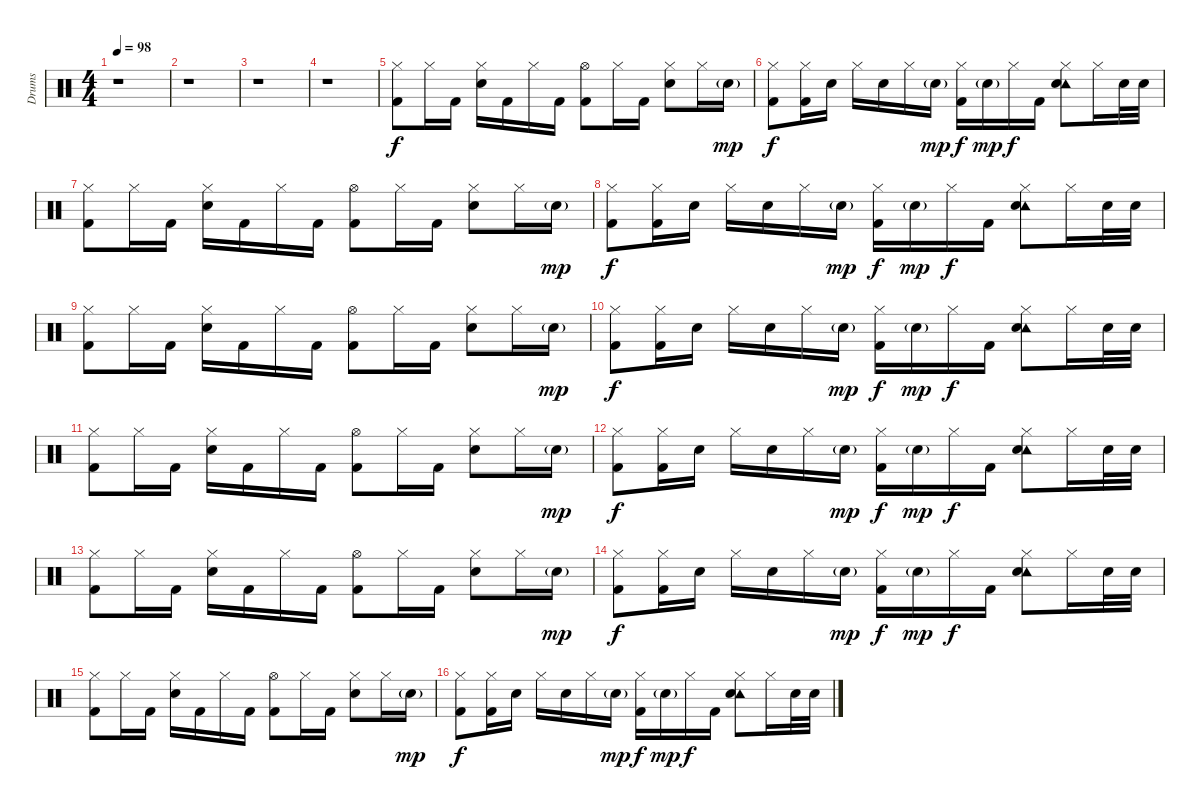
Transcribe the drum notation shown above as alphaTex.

\track ("Drums" "Drums") {instrument percussion}
\staff {score}
\articulation defaults
\ts (4 4)
\tempo 98
\clef neutral
\ks c
r.1{dy f} |
r.1 |
r.1 |
r.1 |
("Hi-Hat (closed)" "Kick (hit) 2").8 "Hi-Hat (closed)".16 "Kick (hit) 2".16 ("Hi-Hat (closed)" "Snare (hit) 2").16 "Kick (hit) 2".16 "Hi-Hat (closed)".16 "Kick (hit) 2".16 ("Hi-Hat (open)" "Kick (hit) 2").8 "Hi-Hat (closed)".16 "Kick (hit) 2".16 ("Hi-Hat (closed)" "Snare (hit) 2").8 "Hi-Hat (closed)".16 "Snare (hit) 2"{g}.16{dy mp} |
("Hi-Hat (closed)" "Kick (hit) 2").8{dy f} ("Hi-Hat (closed)" "Kick (hit) 2").16 "Snare (hit) 2".16 "Hi-Hat (closed)".16 "Snare (hit) 2".16 "Hi-Hat (closed)".16 "Snare (hit) 2"{g}.16{dy mp} ("Hi-Hat (closed)" "Kick (hit) 2").16{dy f} "Snare (hit) 2"{g}.16{dy mp} "Hi-Hat (closed)".16{dy f} "Kick (hit) 2".16 ("Hi-Hat (closed)" "Tambourine (hit)" "Snare (hit) 2").8 "Hi-Hat (closed)".16 "Snare (hit) 2".32 "Snare (hit) 2".32 |
("Hi-Hat (closed)" "Kick (hit) 2").8 "Hi-Hat (closed)".16 "Kick (hit) 2".16 ("Hi-Hat (closed)" "Snare (hit) 2").16 "Kick (hit) 2".16 "Hi-Hat (closed)".16 "Kick (hit) 2".16 ("Hi-Hat (open)" "Kick (hit) 2").8 "Hi-Hat (closed)".16 "Kick (hit) 2".16 ("Hi-Hat (closed)" "Snare (hit) 2").8 "Hi-Hat (closed)".16 "Snare (hit) 2"{g}.16{dy mp} |
("Hi-Hat (closed)" "Kick (hit) 2").8{dy f} ("Hi-Hat (closed)" "Kick (hit) 2").16 "Snare (hit) 2".16 "Hi-Hat (closed)".16 "Snare (hit) 2".16 "Hi-Hat (closed)".16 "Snare (hit) 2"{g}.16{dy mp} ("Hi-Hat (closed)" "Kick (hit) 2").16{dy f} "Snare (hit) 2"{g}.16{dy mp} "Hi-Hat (closed)".16{dy f} "Kick (hit) 2".16 ("Hi-Hat (closed)" "Tambourine (hit)" "Snare (hit) 2").8 "Hi-Hat (closed)".16 "Snare (hit) 2".32 "Snare (hit) 2".32 |
("Hi-Hat (closed)" "Kick (hit) 2").8 "Hi-Hat (closed)".16 "Kick (hit) 2".16 ("Hi-Hat (closed)" "Snare (hit) 2").16 "Kick (hit) 2".16 "Hi-Hat (closed)".16 "Kick (hit) 2".16 ("Hi-Hat (open)" "Kick (hit) 2").8 "Hi-Hat (closed)".16 "Kick (hit) 2".16 ("Hi-Hat (closed)" "Snare (hit) 2").8 "Hi-Hat (closed)".16 "Snare (hit) 2"{g}.16{dy mp} |
("Hi-Hat (closed)" "Kick (hit) 2").8{dy f} ("Hi-Hat (closed)" "Kick (hit) 2").16 "Snare (hit) 2".16 "Hi-Hat (closed)".16 "Snare (hit) 2".16 "Hi-Hat (closed)".16 "Snare (hit) 2"{g}.16{dy mp} ("Hi-Hat (closed)" "Kick (hit) 2").16{dy f} "Snare (hit) 2"{g}.16{dy mp} "Hi-Hat (closed)".16{dy f} "Kick (hit) 2".16 ("Hi-Hat (closed)" "Tambourine (hit)" "Snare (hit) 2").8 "Hi-Hat (closed)".16 "Snare (hit) 2".32 "Snare (hit) 2".32 |
("Hi-Hat (closed)" "Kick (hit) 2").8 "Hi-Hat (closed)".16 "Kick (hit) 2".16 ("Hi-Hat (closed)" "Snare (hit) 2").16 "Kick (hit) 2".16 "Hi-Hat (closed)".16 "Kick (hit) 2".16 ("Hi-Hat (open)" "Kick (hit) 2").8 "Hi-Hat (closed)".16 "Kick (hit) 2".16 ("Hi-Hat (closed)" "Snare (hit) 2").8 "Hi-Hat (closed)".16 "Snare (hit) 2"{g}.16{dy mp} |
("Hi-Hat (closed)" "Kick (hit) 2").8{dy f} ("Hi-Hat (closed)" "Kick (hit) 2").16 "Snare (hit) 2".16 "Hi-Hat (closed)".16 "Snare (hit) 2".16 "Hi-Hat (closed)".16 "Snare (hit) 2"{g}.16{dy mp} ("Hi-Hat (closed)" "Kick (hit) 2").16{dy f} "Snare (hit) 2"{g}.16{dy mp} "Hi-Hat (closed)".16{dy f} "Kick (hit) 2".16 ("Hi-Hat (closed)" "Tambourine (hit)" "Snare (hit) 2").8 "Hi-Hat (closed)".16 "Snare (hit) 2".32 "Snare (hit) 2".32 |
("Hi-Hat (closed)" "Kick (hit) 2").8 "Hi-Hat (closed)".16 "Kick (hit) 2".16 ("Hi-Hat (closed)" "Snare (hit) 2").16 "Kick (hit) 2".16 "Hi-Hat (closed)".16 "Kick (hit) 2".16 ("Hi-Hat (open)" "Kick (hit) 2").8 "Hi-Hat (closed)".16 "Kick (hit) 2".16 ("Hi-Hat (closed)" "Snare (hit) 2").8 "Hi-Hat (closed)".16 "Snare (hit) 2"{g}.16{dy mp} |
("Hi-Hat (closed)" "Kick (hit) 2").8{dy f} ("Hi-Hat (closed)" "Kick (hit) 2").16 "Snare (hit) 2".16 "Hi-Hat (closed)".16 "Snare (hit) 2".16 "Hi-Hat (closed)".16 "Snare (hit) 2"{g}.16{dy mp} ("Hi-Hat (closed)" "Kick (hit) 2").16{dy f} "Snare (hit) 2"{g}.16{dy mp} "Hi-Hat (closed)".16{dy f} "Kick (hit) 2".16 ("Hi-Hat (closed)" "Tambourine (hit)" "Snare (hit) 2").8 "Hi-Hat (closed)".16 "Snare (hit) 2".32 "Snare (hit) 2".32 |
("Hi-Hat (closed)" "Kick (hit) 2").8 "Hi-Hat (closed)".16 "Kick (hit) 2".16 ("Hi-Hat (closed)" "Snare (hit) 2").16 "Kick (hit) 2".16 "Hi-Hat (closed)".16 "Kick (hit) 2".16 ("Hi-Hat (open)" "Kick (hit) 2").8 "Hi-Hat (closed)".16 "Kick (hit) 2".16 ("Hi-Hat (closed)" "Snare (hit) 2").8 "Hi-Hat (closed)".16 "Snare (hit) 2"{g}.16{dy mp} |
("Hi-Hat (closed)" "Kick (hit) 2").8{dy f} ("Hi-Hat (closed)" "Kick (hit) 2").16 "Snare (hit) 2".16 "Hi-Hat (closed)".16 "Snare (hit) 2".16 "Hi-Hat (closed)".16 "Snare (hit) 2"{g}.16{dy mp} ("Hi-Hat (closed)" "Kick (hit) 2").16{dy f} "Snare (hit) 2"{g}.16{dy mp} "Hi-Hat (closed)".16{dy f} "Kick (hit) 2".16 ("Hi-Hat (closed)" "Tambourine (hit)" "Snare (hit) 2").8 "Hi-Hat (closed)".16 "Snare (hit) 2".32 "Snare (hit) 2".32
